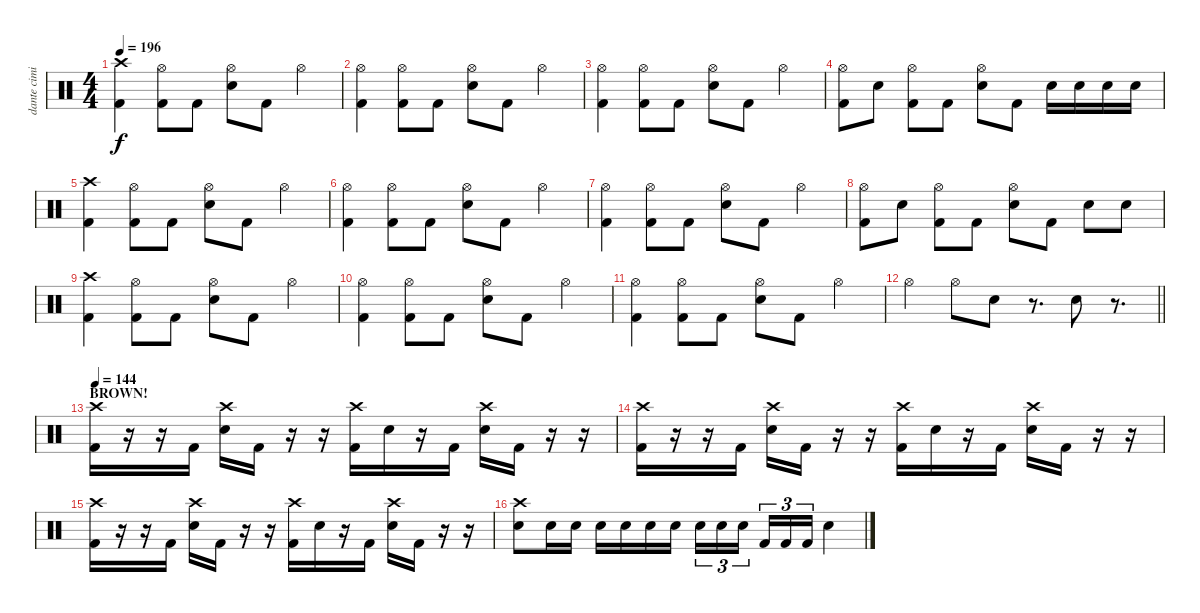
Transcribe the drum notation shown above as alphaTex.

\track ("dante cimino" "dante cimi") {instrument percussion}
\staff {score}
\articulation defaults
\ts (4 4)
\tempo 196
\clef neutral
\ks c
("Crash high (hit)" "Kick (hit) 2").4{dy f} ("Hi-Hat (open)" "Kick (hit) 2").8 "Kick (hit) 2".8 ("Hi-Hat (open)" "Electric Snare (hit)").8 "Kick (hit) 2".8 "Hi-Hat (open)".4 |
("Hi-Hat (open)" "Kick (hit) 2").4 ("Hi-Hat (open)" "Kick (hit) 2").8 "Kick (hit) 2".8 ("Hi-Hat (open)" "Electric Snare (hit)").8 "Kick (hit) 2".8 "Hi-Hat (open)".4 |
("Hi-Hat (open)" "Kick (hit) 2").4 ("Hi-Hat (open)" "Kick (hit) 2").8 "Kick (hit) 2".8 ("Hi-Hat (open)" "Electric Snare (hit)").8 "Kick (hit) 2".8 "Hi-Hat (open)".4 |
("Hi-Hat (open)" "Kick (hit) 2").8 "Electric Snare (hit)".8 ("Hi-Hat (open)" "Kick (hit) 2").8 "Kick (hit) 2".8 ("Hi-Hat (open)" "Electric Snare (hit)").8 "Kick (hit) 2".8 "Electric Snare (hit)".16 "Electric Snare (hit)".16 "Electric Snare (hit)".16 "Electric Snare (hit)".16 |
("Crash high (hit)" "Kick (hit) 2").4 ("Hi-Hat (open)" "Kick (hit) 2").8 "Kick (hit) 2".8 ("Hi-Hat (open)" "Electric Snare (hit)").8 "Kick (hit) 2".8 "Hi-Hat (open)".4 |
("Hi-Hat (open)" "Kick (hit) 2").4 ("Hi-Hat (open)" "Kick (hit) 2").8 "Kick (hit) 2".8 ("Hi-Hat (open)" "Electric Snare (hit)").8 "Kick (hit) 2".8 "Hi-Hat (open)".4 |
("Hi-Hat (open)" "Kick (hit) 2").4 ("Hi-Hat (open)" "Kick (hit) 2").8 "Kick (hit) 2".8 ("Hi-Hat (open)" "Electric Snare (hit)").8 "Kick (hit) 2".8 "Hi-Hat (open)".4 |
("Hi-Hat (open)" "Kick (hit) 2").8 "Electric Snare (hit)".8 ("Hi-Hat (open)" "Kick (hit) 2").8 "Kick (hit) 2".8 ("Hi-Hat (open)" "Electric Snare (hit)").8 "Kick (hit) 2".8 "Electric Snare (hit)".8 "Electric Snare (hit)".8 |
("Crash high (hit)" "Kick (hit) 2").4 ("Hi-Hat (open)" "Kick (hit) 2").8 "Kick (hit) 2".8 ("Hi-Hat (open)" "Electric Snare (hit)").8 "Kick (hit) 2".8 "Hi-Hat (open)".4 |
("Hi-Hat (open)" "Kick (hit) 2").4 ("Hi-Hat (open)" "Kick (hit) 2").8 "Kick (hit) 2".8 ("Hi-Hat (open)" "Electric Snare (hit)").8 "Kick (hit) 2".8 "Hi-Hat (open)".4 |
("Hi-Hat (open)" "Kick (hit) 2").4 ("Hi-Hat (open)" "Kick (hit) 2").8 "Kick (hit) 2".8 ("Hi-Hat (open)" "Electric Snare (hit)").8 "Kick (hit) 2".8 "Hi-Hat (open)".4 |
\barLineRight lightlight "Hi-Hat (open)".4 "Hi-Hat (open)".8 "Electric Snare (hit)".8
r.8{d} "Electric Snare (hit)".8 r.8{d} |
\section ("" "BROWN!")
\tempo 144
("Crash high (hit)" "Kick (hit) 2").16 r.16 r.16 "Kick (hit) 2".16 ("Crash high (hit)" "Electric Snare (hit)").16 "Kick (hit) 2".16 r.16 r.16 ("Crash high (hit)" "Kick (hit) 2").16 "Electric Snare (hit)".16 r.16 "Kick (hit) 2".16 ("Crash high (hit)" "Electric Snare (hit)").16 "Kick (hit) 2".16 r.16 r.16 |
("Crash high (hit)" "Kick (hit) 2").16 r.16 r.16 "Kick (hit) 2".16 ("Crash high (hit)" "Electric Snare (hit)").16 "Kick (hit) 2".16 r.16 r.16 ("Crash high (hit)" "Kick (hit) 2").16 "Electric Snare (hit)".16 r.16 "Kick (hit) 2".16 ("Crash high (hit)" "Electric Snare (hit)").16 "Kick (hit) 2".16 r.16 r.16 |
("Crash high (hit)" "Kick (hit) 2").16 r.16 r.16 "Kick (hit) 2".16 ("Crash high (hit)" "Electric Snare (hit)").16 "Kick (hit) 2".16 r.16 r.16 ("Crash high (hit)" "Kick (hit) 2").16 "Electric Snare (hit)".16 r.16 "Kick (hit) 2".16 ("Crash high (hit)" "Electric Snare (hit)").16 "Kick (hit) 2".16 r.16 r.16 |
("Crash high (hit)" "Electric Snare (hit)").8 "Electric Snare (hit)".16 "Electric Snare (hit)".16 "Electric Snare (hit)".16 "Electric Snare (hit)".16 "Electric Snare (hit)".16 "Electric Snare (hit)".16 "Electric Snare (hit)".16{tu (3 2)} "Electric Snare (hit)".16{tu (3 2)} "Electric Snare (hit)".16{tu (3 2) beam splitsecondary} "Kick (hit) 2".16{tu (3 2)} "Kick (hit) 2".16{tu (3 2)} "Kick (hit) 2".16{tu (3 2)} "Electric Snare (hit)".4
